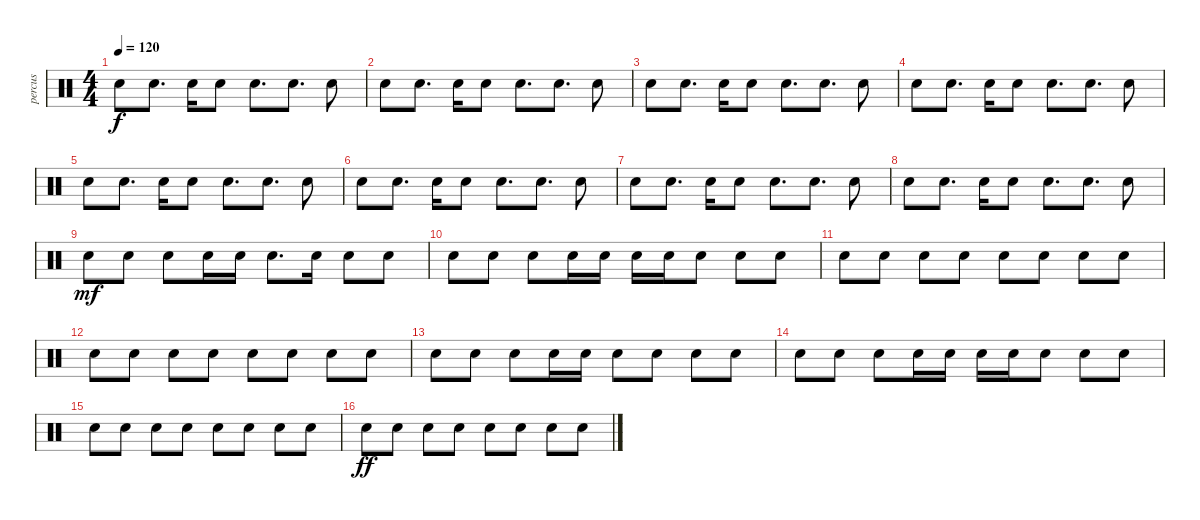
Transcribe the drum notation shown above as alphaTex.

\track ("percus" "percus") {instrument percussion}
\staff {score}
\articulation defaults
\ts (4 4)
\tempo 120
\clef neutral
\ks c "Snare (hit)".8{dy f} "Snare (hit)".8{d} "Snare (hit)".16 "Snare (hit)".8 "Snare (hit)".8{d} "Snare (hit)".8{d} "Snare (hit)".8
|
"Snare (hit)".8 "Snare (hit)".8{d} "Snare (hit)".16 "Snare (hit)".8 "Snare (hit)".8{d} "Snare (hit)".8{d} "Snare (hit)".8 |
"Snare (hit)".8 "Snare (hit)".8{d} "Snare (hit)".16 "Snare (hit)".8 "Snare (hit)".8{d} "Snare (hit)".8{d} "Snare (hit)".8 |
"Snare (hit)".8 "Snare (hit)".8{d} "Snare (hit)".16 "Snare (hit)".8 "Snare (hit)".8{d} "Snare (hit)".8{d} "Snare (hit)".8 |
"Snare (hit)".8 "Snare (hit)".8{d} "Snare (hit)".16 "Snare (hit)".8 "Snare (hit)".8{d} "Snare (hit)".8{d} "Snare (hit)".8 |
"Snare (hit)".8 "Snare (hit)".8{d} "Snare (hit)".16 "Snare (hit)".8 "Snare (hit)".8{d} "Snare (hit)".8{d} "Snare (hit)".8 |
"Snare (hit)".8 "Snare (hit)".8{d} "Snare (hit)".16 "Snare (hit)".8 "Snare (hit)".8{d} "Snare (hit)".8{d} "Snare (hit)".8 |
"Snare (hit)".8 "Snare (hit)".8{d} "Snare (hit)".16 "Snare (hit)".8 "Snare (hit)".8{d} "Snare (hit)".8{d} "Snare (hit)".8 |
"Snare (hit)".8{dy mf} "Snare (hit)".8 "Snare (hit)".8 "Snare (hit)".16 "Snare (hit)".16 "Snare (hit)".8{d} "Snare (hit)".16 "Snare (hit)".8 "Snare (hit)".8 |
"Snare (hit)".8 "Snare (hit)".8 "Snare (hit)".8 "Snare (hit)".16 "Snare (hit)".16 "Snare (hit)".16 "Snare (hit)".16 "Snare (hit)".8 "Snare (hit)".8 "Snare (hit)".8 |
"Snare (hit)".8 "Snare (hit)".8 "Snare (hit)".8 "Snare (hit)".8 "Snare (hit)".8 "Snare (hit)".8 "Snare (hit)".8 "Snare (hit)".8 |
"Snare (hit)".8 "Snare (hit)".8 "Snare (hit)".8 "Snare (hit)".8 "Snare (hit)".8 "Snare (hit)".8 "Snare (hit)".8 "Snare (hit)".8 |
"Snare (hit)".8 "Snare (hit)".8 "Snare (hit)".8 "Snare (hit)".16 "Snare (hit)".16 "Snare (hit)".8 "Snare (hit)".8 "Snare (hit)".8 "Snare (hit)".8 |
"Snare (hit)".8 "Snare (hit)".8 "Snare (hit)".8 "Snare (hit)".16 "Snare (hit)".16 "Snare (hit)".16 "Snare (hit)".16 "Snare (hit)".8 "Snare (hit)".8 "Snare (hit)".8 |
"Snare (hit)".8 "Snare (hit)".8 "Snare (hit)".8 "Snare (hit)".8 "Snare (hit)".8 "Snare (hit)".8 "Snare (hit)".8 "Snare (hit)".8 |
"Snare (hit)".8{dy ff volume 10} "Snare (hit)".8{volume 11} "Snare (hit)".8{volume 12} "Snare (hit)".8{volume 12} "Snare (hit)".8{volume 13} "Snare (hit)".8{volume 14} "Snare (hit)".8{volume 14} "Snare (hit)".8{volume 15}
